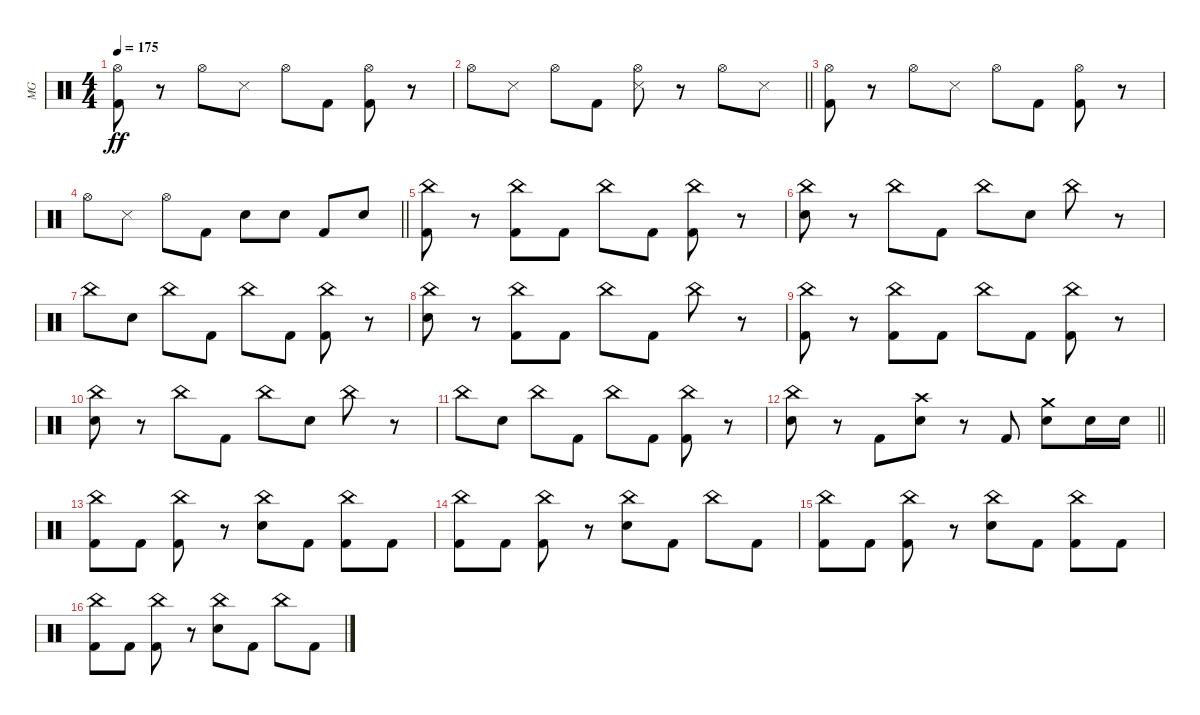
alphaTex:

\track ("MG" "MG") {instrument percussion}
\staff {score}
\articulation defaults
\ts (4 4)
\tempo 175
\clef neutral
\ks c
("Hi-Hat (open)" "Kick (hit) 2").8{dy ff} r.8 "Hi-Hat (open)".8 "Snare (side stick) 3".8 "Hi-Hat (open)".8 "Kick (hit) 2".8 ("Hi-Hat (open)" "Kick (hit) 2").8 r.8 |
\barLineRight lightlight "Hi-Hat (open)".8 "Snare (side stick) 3".8 "Hi-Hat (open)".8 "Kick (hit) 2".8
("Hi-Hat (open)" "Snare (side stick) 3").8 r.8 "Hi-Hat (open)".8 "Snare (side stick) 3".8 |
\section ("" "")
("Hi-Hat (open)" "Kick (hit) 2").8 r.8 "Hi-Hat (open)".8 "Snare (side stick) 3".8 "Hi-Hat (open)".8 "Kick (hit) 2".8 ("Hi-Hat (open)" "Kick (hit) 2").8 r.8 |
\barLineRight lightlight "Hi-Hat (open)".8 "Snare (side stick) 3".8 "Hi-Hat (open)".8 "Kick (hit) 2".8 "Electric Snare (hit)".8 "Electric Snare (hit)".8 "Kick (hit) 2".8 "Electric Snare (hit)".8
|
\section ("" "")
("China (hit)" "Kick (hit) 2").8 r.8 ("China (hit)" "Kick (hit) 2").8 "Kick (hit) 2".8 "China (hit)".8 "Kick (hit) 2".8 ("China (hit)" "Kick (hit) 2").8 r.8 |
("China (hit)" "Electric Snare (hit)").8 r.8 "China (hit)".8 "Kick (hit) 2".8 "China (hit)".8 "Electric Snare (hit)".8 "China (hit)".8 r.8 |
"China (hit)".8 "Electric Snare (hit)".8 "China (hit)".8 "Kick (hit) 2".8 "China (hit)".8 "Kick (hit) 2".8 ("China (hit)" "Kick (hit) 2").8 r.8 |
("China (hit)" "Electric Snare (hit)").8 r.8 ("China (hit)" "Kick (hit) 2").8 "Kick (hit) 2".8 "China (hit)".8 "Kick (hit) 2".8 "China (hit)".8 r.8 |
("China (hit)" "Kick (hit) 2").8 r.8 ("China (hit)" "Kick (hit) 2").8 "Kick (hit) 2".8 "China (hit)".8 "Kick (hit) 2".8 ("China (hit)" "Kick (hit) 2").8 r.8 |
("China (hit)" "Electric Snare (hit)").8 r.8 "China (hit)".8 "Kick (hit) 2".8 "China (hit)".8 "Electric Snare (hit)".8 "China (hit)".8 r.8 |
"China (hit)".8 "Electric Snare (hit)".8 "China (hit)".8 "Kick (hit) 2".8 "China (hit)".8 "Kick (hit) 2".8 ("China (hit)" "Kick (hit) 2").8 r.8 |
\barLineRight lightlight
("China (hit)" "Electric Snare (hit)").8 r.8 "Kick (hit) 2".8 ("Crash high (hit)" "Electric Snare (hit)").8 r.8 "Kick (hit) 2".8 ("Crash medium (hit)" "Electric Snare (hit)").8 "Electric Snare (hit)".16 "Electric Snare (hit)".16 |
\section ("" "")
("China (hit)" "Kick (hit) 2").8 "Kick (hit) 2".8 ("China (hit)" "Kick (hit) 2").8 r.8 ("China (hit)" "Electric Snare (hit)").8 "Kick (hit) 2".8 ("China (hit)" "Kick (hit) 2").8 "Kick (hit) 2".8 |
("China (hit)" "Kick (hit) 2").8 "Kick (hit) 2".8 ("China (hit)" "Kick (hit) 2").8 r.8 ("China (hit)" "Electric Snare (hit)").8 "Kick (hit) 2".8 "China (hit)".8 "Kick (hit) 2".8 |
("China (hit)" "Kick (hit) 2").8 "Kick (hit) 2".8 ("China (hit)" "Kick (hit) 2").8 r.8 ("China (hit)" "Electric Snare (hit)").8 "Kick (hit) 2".8 ("China (hit)" "Kick (hit) 2").8 "Kick (hit) 2".8 |
("China (hit)" "Kick (hit) 2").8 "Kick (hit) 2".8 ("China (hit)" "Kick (hit) 2").8 r.8 ("China (hit)" "Electric Snare (hit)").8 "Kick (hit) 2".8 "China (hit)".8 "Kick (hit) 2".8
